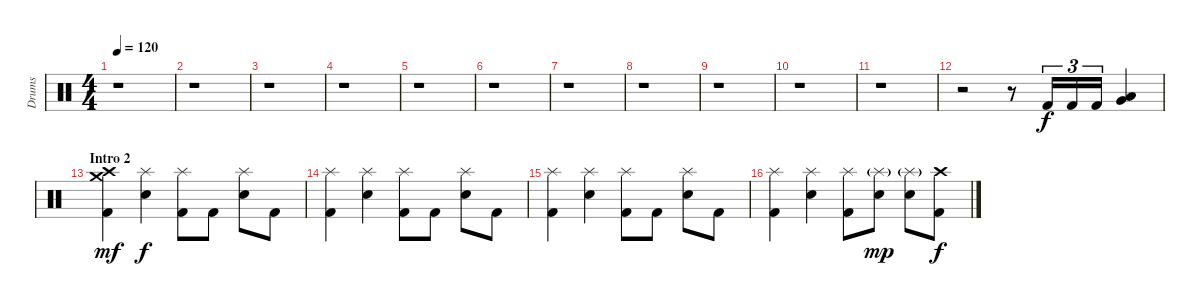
\track ("Drums" "Drums") {instrument percussion}
\staff {score}
\articulation defaults
\ts (4 4)
\tempo 120
\clef neutral
\ks c
r.1{dy f} |
r.1 |
r.1 |
r.1 |
r.1 |
r.1 |
r.1 |
r.1 |
r.1 |
r.1 |
r.1 |
r.2 r.8 "Kick (hit) 2".16{tu (3 2)} "Kick (hit) 2".16{tu (3 2)} "Kick (hit) 2".16{tu (3 2)} ("Very Low Tom (hit)" "Low Floor Tom (hit)").4 |
\section ("" "Intro 2")
("Crash medium (hit)" "Crash high (hit)" "Kick (hit) 2").4{dy mf} ("Splash (hit)" "Snare (hit) 2").4{dy f} ("Splash (hit)" "Kick (hit) 2").8 "Kick (hit) 2".8 ("Splash (hit)" "Snare (hit) 2").8 "Kick (hit) 2".8 |
("Splash (hit)" "Kick (hit) 2").4 ("Splash (hit)" "Snare (hit) 2").4 ("Splash (hit)" "Kick (hit) 2").8 "Kick (hit) 2".8 ("Splash (hit)" "Snare (hit) 2").8 "Kick (hit) 2".8 |
("Splash (hit)" "Kick (hit) 2").4 ("Splash (hit)" "Snare (hit) 2").4 ("Splash (hit)" "Kick (hit) 2").8 "Kick (hit) 2".8 ("Splash (hit)" "Snare (hit) 2").8 "Kick (hit) 2".8 |
("Splash (hit)" "Kick (hit) 2").4 ("Splash (hit)" "Snare (hit) 2").4 ("Splash (hit)" "Kick (hit) 2").8 ("Splash (hit)"{g} "Snare (hit) 2").8{dy mp} ("Splash (hit)"{g} "Snare (hit) 2").8 ("Crash high (hit)" "Kick (hit) 2").8{dy f}
